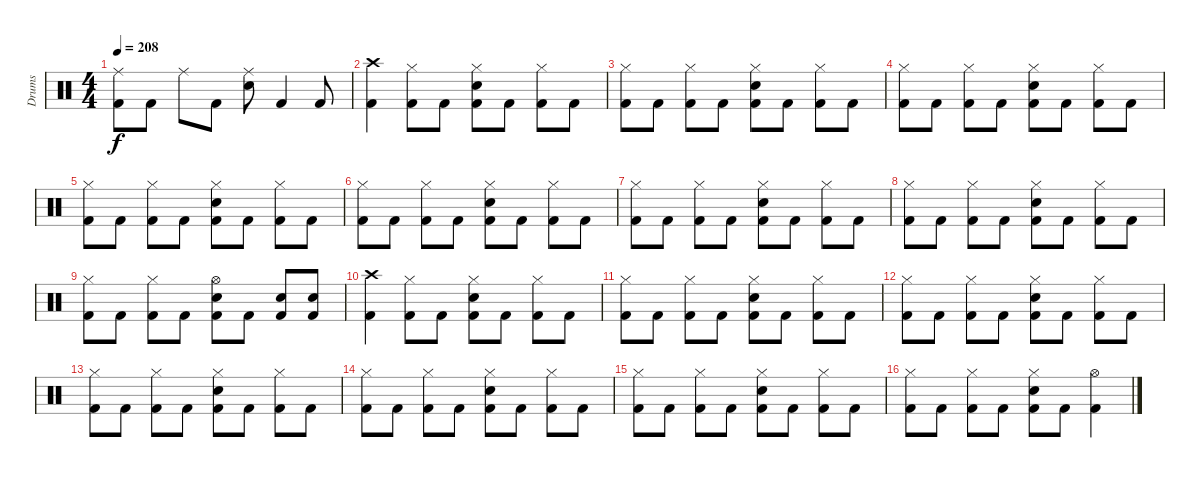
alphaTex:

\track ("Drums" "Drums") {instrument percussion}
\staff {score}
\articulation defaults
\ts (4 4)
\tempo 208
\clef neutral
\ks c
("Ride (middle)" "Kick (hit) 2").8{dy f} "Kick (hit) 2".8 "Ride (middle)".8 "Kick (hit) 2".8 ("Ride (middle)" "Electric Snare (hit)").8 "Kick (hit) 2".4 "Kick (hit) 2".8 |
("Crash high (hit)" "Kick (hit) 2").4 ("Hi-Hat (closed)" "Kick (hit) 2").8 "Kick (hit) 2".8 ("Hi-Hat (closed)" "Electric Snare (hit)" "Kick (hit) 2").8 "Kick (hit) 2".8 ("Hi-Hat (closed)" "Kick (hit) 2").8 "Kick (hit) 2".8 |
("Hi-Hat (closed)" "Kick (hit) 2").8 "Kick (hit) 2".8 ("Hi-Hat (closed)" "Kick (hit) 2").8 "Kick (hit) 2".8 ("Hi-Hat (closed)" "Electric Snare (hit)" "Kick (hit) 2").8 "Kick (hit) 2".8 ("Hi-Hat (closed)" "Kick (hit) 2").8 "Kick (hit) 2".8 |
("Hi-Hat (closed)" "Kick (hit) 2").8 "Kick (hit) 2".8 ("Hi-Hat (closed)" "Kick (hit) 2").8 "Kick (hit) 2".8 ("Hi-Hat (closed)" "Electric Snare (hit)" "Kick (hit) 2").8 "Kick (hit) 2".8 ("Hi-Hat (closed)" "Kick (hit) 2").8 "Kick (hit) 2".8 |
("Hi-Hat (closed)" "Kick (hit) 2").8 "Kick (hit) 2".8 ("Hi-Hat (closed)" "Kick (hit) 2").8 "Kick (hit) 2".8 ("Hi-Hat (closed)" "Electric Snare (hit)" "Kick (hit) 2").8 "Kick (hit) 2".8 ("Hi-Hat (closed)" "Kick (hit) 2").8 "Kick (hit) 2".8 |
("Hi-Hat (closed)" "Kick (hit) 2").8 "Kick (hit) 2".8 ("Hi-Hat (closed)" "Kick (hit) 2").8 "Kick (hit) 2".8 ("Hi-Hat (closed)" "Electric Snare (hit)" "Kick (hit) 2").8 "Kick (hit) 2".8 ("Hi-Hat (closed)" "Kick (hit) 2").8 "Kick (hit) 2".8 |
("Hi-Hat (closed)" "Kick (hit) 2").8 "Kick (hit) 2".8 ("Hi-Hat (closed)" "Kick (hit) 2").8 "Kick (hit) 2".8 ("Hi-Hat (closed)" "Electric Snare (hit)" "Kick (hit) 2").8 "Kick (hit) 2".8 ("Hi-Hat (closed)" "Kick (hit) 2").8 "Kick (hit) 2".8 |
("Hi-Hat (closed)" "Kick (hit) 2").8 "Kick (hit) 2".8 ("Hi-Hat (closed)" "Kick (hit) 2").8 "Kick (hit) 2".8 ("Hi-Hat (closed)" "Electric Snare (hit)" "Kick (hit) 2").8 "Kick (hit) 2".8 ("Hi-Hat (closed)" "Kick (hit) 2").8 "Kick (hit) 2".8 |
("Hi-Hat (closed)" "Kick (hit) 2").8 "Kick (hit) 2".8 ("Hi-Hat (closed)" "Kick (hit) 2").8 "Kick (hit) 2".8 ("Hi-Hat (open)" "Electric Snare (hit)" "Kick (hit) 2").8 "Kick (hit) 2".8 ("Electric Snare (hit)" "Kick (hit) 2").8 ("Electric Snare (hit)" "Kick (hit) 2").8 |
("Crash high (hit)" "Kick (hit) 2").4 ("Hi-Hat (closed)" "Kick (hit) 2").8 "Kick (hit) 2".8 ("Hi-Hat (closed)" "Electric Snare (hit)" "Kick (hit) 2").8 "Kick (hit) 2".8 ("Hi-Hat (closed)" "Kick (hit) 2").8 "Kick (hit) 2".8 |
("Hi-Hat (closed)" "Kick (hit) 2").8 "Kick (hit) 2".8 ("Hi-Hat (closed)" "Kick (hit) 2").8 "Kick (hit) 2".8 ("Hi-Hat (closed)" "Electric Snare (hit)" "Kick (hit) 2").8 "Kick (hit) 2".8 ("Hi-Hat (closed)" "Kick (hit) 2").8 "Kick (hit) 2".8 |
("Hi-Hat (closed)" "Kick (hit) 2").8 "Kick (hit) 2".8 ("Hi-Hat (closed)" "Kick (hit) 2").8 "Kick (hit) 2".8 ("Hi-Hat (closed)" "Electric Snare (hit)" "Kick (hit) 2").8 "Kick (hit) 2".8 ("Hi-Hat (closed)" "Kick (hit) 2").8 "Kick (hit) 2".8 |
("Hi-Hat (closed)" "Kick (hit) 2").8 "Kick (hit) 2".8 ("Hi-Hat (closed)" "Kick (hit) 2").8 "Kick (hit) 2".8 ("Hi-Hat (closed)" "Electric Snare (hit)" "Kick (hit) 2").8 "Kick (hit) 2".8 ("Hi-Hat (closed)" "Kick (hit) 2").8 "Kick (hit) 2".8 |
("Hi-Hat (closed)" "Kick (hit) 2").8 "Kick (hit) 2".8 ("Hi-Hat (closed)" "Kick (hit) 2").8 "Kick (hit) 2".8 ("Hi-Hat (closed)" "Electric Snare (hit)" "Kick (hit) 2").8 "Kick (hit) 2".8 ("Hi-Hat (closed)" "Kick (hit) 2").8 "Kick (hit) 2".8 |
("Hi-Hat (closed)" "Kick (hit) 2").8 "Kick (hit) 2".8 ("Hi-Hat (closed)" "Kick (hit) 2").8 "Kick (hit) 2".8 ("Hi-Hat (closed)" "Electric Snare (hit)" "Kick (hit) 2").8 "Kick (hit) 2".8 ("Hi-Hat (closed)" "Kick (hit) 2").8 "Kick (hit) 2".8 |
("Hi-Hat (closed)" "Kick (hit) 2").8 "Kick (hit) 2".8 ("Hi-Hat (closed)" "Kick (hit) 2").8 "Kick (hit) 2".8 ("Hi-Hat (closed)" "Electric Snare (hit)" "Kick (hit) 2").8 "Kick (hit) 2".8 ("Hi-Hat (open)" "Kick (hit) 2").4
